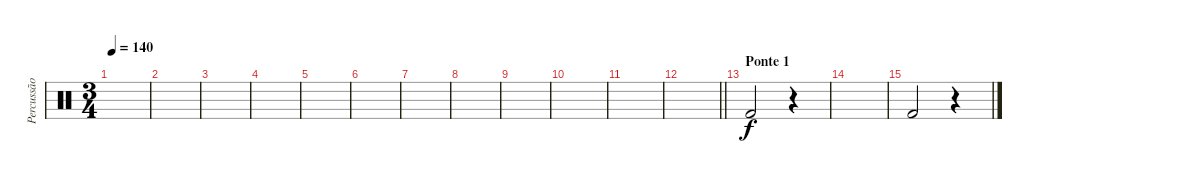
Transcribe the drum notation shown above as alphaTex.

\track ("Percussão" "Percussão") {instrument percussion}
\staff {score}
\articulation defaults
\ts (3 4)
\tempo 140
\clef neutral
\ks c
|
|
|
|
|
|
|
|
|
|
|
\barLineRight lightlight
|
\section ("" "Ponte 1")
"Kick (hit) 2".2 r.4 |
|
"Kick (hit) 2".2 r.4
